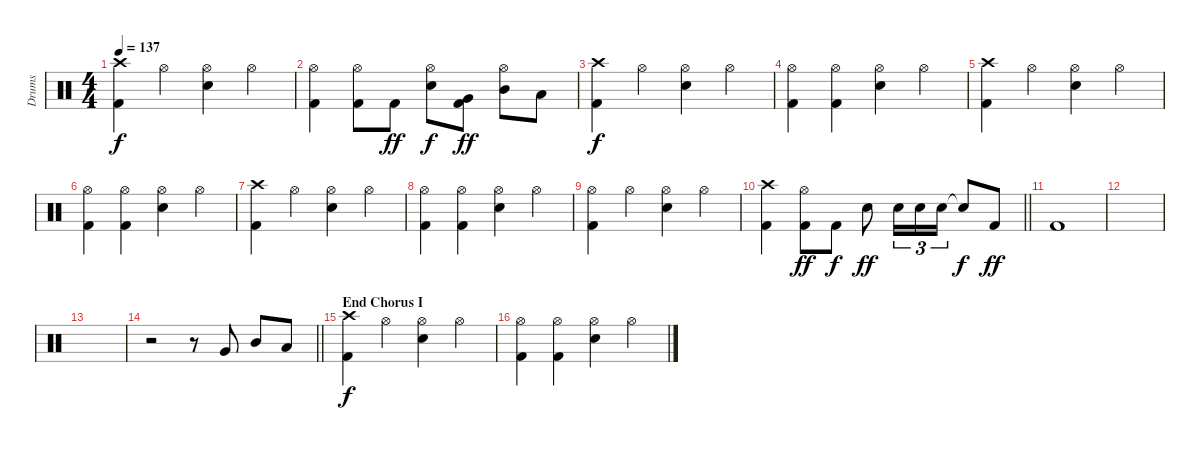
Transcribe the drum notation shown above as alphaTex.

\track ("Drums" "Drums") {instrument percussion}
\staff {score}
\articulation defaults
\ts (4 4)
\tempo 137
\clef neutral
\ks c
("Crash high (hit)" "Kick (hit) 2").4{dy f} "Hi-Hat (open)".4 ("Hi-Hat (open)" "Snare (hit) 2").4 "Hi-Hat (open)".4 |
("Hi-Hat (open)" "Kick (hit) 2").4 ("Hi-Hat (open)" "Kick (hit) 2").8 "Kick (hit) 2".8{dy ff} ("Hi-Hat (open)" "Snare (hit) 2").8{dy f} ("Kick (hit) 2" "Very Low Tom (hit)").8{dy ff} ("Hi-Hat (open)" "Mid Tom (hit)").8 "Low Tom (hit)".8 |
("Crash high (hit)" "Kick (hit) 2").4{dy f} "Hi-Hat (open)".4 ("Hi-Hat (open)" "Snare (hit) 2").4 "Hi-Hat (open)".4 |
("Hi-Hat (open)" "Kick (hit) 2").4 ("Hi-Hat (open)" "Kick (hit) 2").4 ("Hi-Hat (open)" "Snare (hit) 2").4 "Hi-Hat (open)".4 |
("Crash high (hit)" "Kick (hit) 2").4 "Hi-Hat (open)".4 ("Hi-Hat (open)" "Snare (hit) 2").4 "Hi-Hat (open)".4 |
("Hi-Hat (open)" "Kick (hit) 2").4 ("Hi-Hat (open)" "Kick (hit) 2").4 ("Hi-Hat (open)" "Snare (hit) 2").4 "Hi-Hat (open)".4 |
("Crash high (hit)" "Kick (hit) 2").4 "Hi-Hat (open)".4 ("Hi-Hat (open)" "Snare (hit) 2").4 "Hi-Hat (open)".4 |
("Hi-Hat (open)" "Kick (hit) 2").4 ("Hi-Hat (open)" "Kick (hit) 2").4 ("Hi-Hat (open)" "Snare (hit) 2").4 "Hi-Hat (open)".4 |
("Hi-Hat (open)" "Kick (hit) 2").4 "Hi-Hat (open)".4 ("Hi-Hat (open)" "Snare (hit) 2").4 "Hi-Hat (open)".4 |
\barLineRight lightlight
("Crash high (hit)" "Kick (hit) 2").4 ("Hi-Hat (open)" "Kick (hit) 2").8{dy ff} "Kick (hit) 2".8{dy f} "Snare (hit) 2".8{dy ff} "Snare (hit) 2".16{tu (3 2)} "Snare (hit) 2".16{tu (3 2)} "Snare (hit) 2".16{tu (3 2)} "Snare (hit)"{t}.8{dy f} "Kick (hit) 2".8{dy ff} |
\section ("" "")
"Kick (hit) 2".1 |
|
|
\barLineRight lightlight
r.2 r.8 "Very Low Tom (hit)".8 "Mid Tom (hit)".8 "Low Tom (hit)".8 |
\section ("" "End Chorus I")
("Crash high (hit)" "Kick (hit) 2").4{dy f} "Hi-Hat (open)".4 ("Hi-Hat (open)" "Snare (hit) 2").4 "Hi-Hat (open)".4 |
("Hi-Hat (open)" "Kick (hit) 2").4 ("Hi-Hat (open)" "Kick (hit) 2").4 ("Hi-Hat (open)" "Snare (hit) 2").4 "Hi-Hat (open)".4
